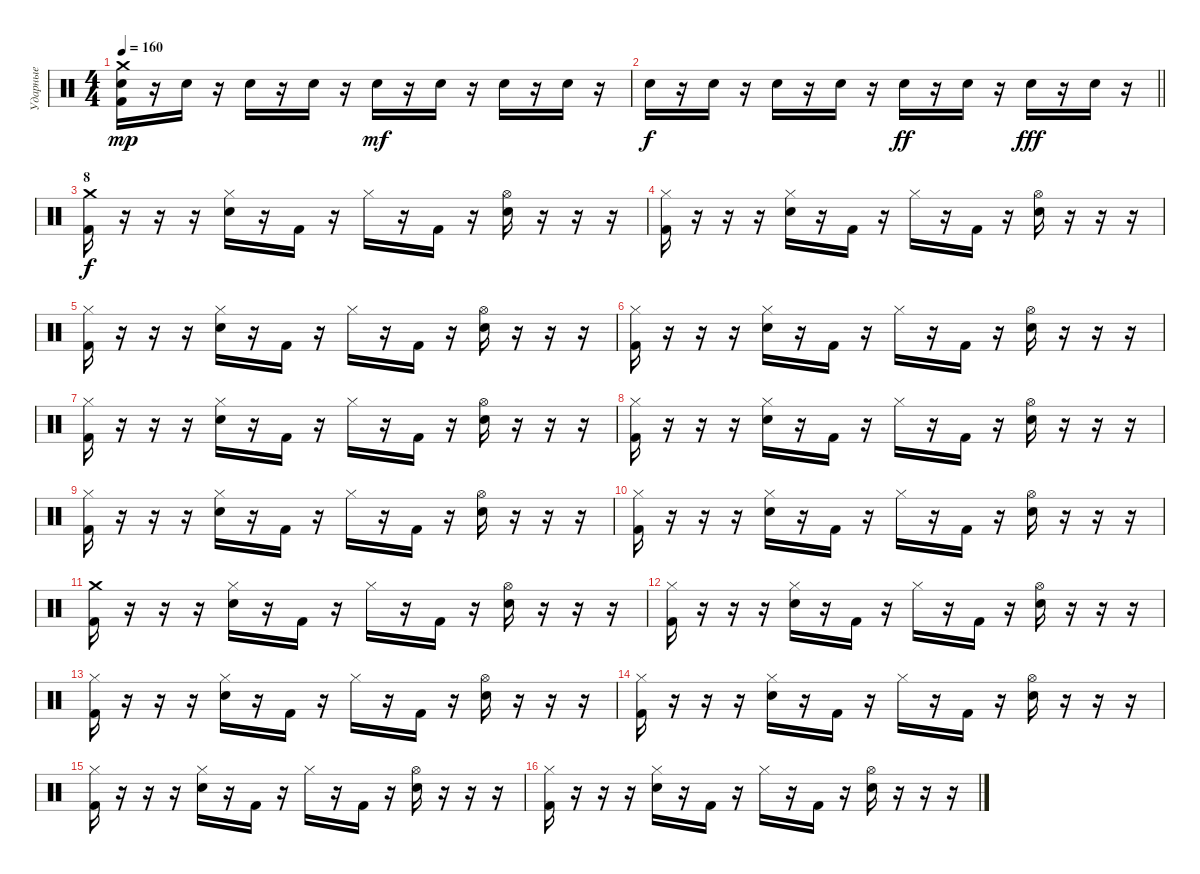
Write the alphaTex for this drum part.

\track ("Ударные" "Ударные") {instrument percussion}
\staff {score}
\articulation defaults
\ts (4 4)
\tempo 160
\clef neutral
\ks c
("Crash medium (hit)" "Electric Snare (hit)" "Kick (hit) 2").16{dy mp} r.16 "Electric Snare (hit)".16 r.16 "Electric Snare (hit)".16 r.16 "Electric Snare (hit)".16 r.16 "Electric Snare (hit)".16{dy mf} r.16 "Electric Snare (hit)".16 r.16 "Electric Snare (hit)".16 r.16 "Electric Snare (hit)".16 r.16 |
\barLineRight lightlight "Electric Snare (hit)".16{dy f}
r.16 "Electric Snare (hit)".16 r.16 "Electric Snare (hit)".16 r.16 "Electric Snare (hit)".16 r.16 "Electric Snare (hit)".16{dy ff} r.16 "Electric Snare (hit)".16 r.16 "Electric Snare (hit)".16{dy fff} r.16 "Electric Snare (hit)".16 r.16 |
\section ("" "8")
("Crash medium (hit)" "Kick (hit) 2").16{dy f} r.16 r.16 r.16 ("Hi-Hat (closed)" "Electric Snare (hit)").16 r.16 "Kick (hit) 2".16 r.16 "Hi-Hat (closed)".16 r.16 "Kick (hit) 2".16 r.16 ("Hi-Hat (open)" "Electric Snare (hit)").16 r.16 r.16 r.16 |
("Hi-Hat (closed)" "Kick (hit) 2").16 r.16 r.16 r.16 ("Hi-Hat (closed)" "Electric Snare (hit)").16 r.16 "Kick (hit) 2".16 r.16 "Hi-Hat (closed)".16 r.16 "Kick (hit) 2".16 r.16 ("Hi-Hat (open)" "Electric Snare (hit)").16 r.16 r.16 r.16 |
("Hi-Hat (closed)" "Kick (hit) 2").16 r.16 r.16 r.16 ("Hi-Hat (closed)" "Electric Snare (hit)").16 r.16 "Kick (hit) 2".16 r.16 "Hi-Hat (closed)".16 r.16 "Kick (hit) 2".16 r.16 ("Hi-Hat (open)" "Electric Snare (hit)").16 r.16 r.16 r.16 |
("Hi-Hat (closed)" "Kick (hit) 2").16 r.16 r.16 r.16 ("Hi-Hat (closed)" "Electric Snare (hit)").16 r.16 "Kick (hit) 2".16 r.16 "Hi-Hat (closed)".16 r.16 "Kick (hit) 2".16 r.16 ("Hi-Hat (open)" "Electric Snare (hit)").16 r.16 r.16 r.16 |
("Hi-Hat (closed)" "Kick (hit) 2").16 r.16 r.16 r.16 ("Hi-Hat (closed)" "Electric Snare (hit)").16 r.16 "Kick (hit) 2".16 r.16 "Hi-Hat (closed)".16 r.16 "Kick (hit) 2".16 r.16 ("Hi-Hat (open)" "Electric Snare (hit)").16 r.16 r.16 r.16 |
("Hi-Hat (closed)" "Kick (hit) 2").16 r.16 r.16 r.16 ("Hi-Hat (closed)" "Electric Snare (hit)").16 r.16 "Kick (hit) 2".16 r.16 "Hi-Hat (closed)".16 r.16 "Kick (hit) 2".16 r.16 ("Hi-Hat (open)" "Electric Snare (hit)").16 r.16 r.16 r.16 |
("Hi-Hat (closed)" "Kick (hit) 2").16 r.16 r.16 r.16 ("Hi-Hat (closed)" "Electric Snare (hit)").16 r.16 "Kick (hit) 2".16 r.16 "Hi-Hat (closed)".16 r.16 "Kick (hit) 2".16 r.16 ("Hi-Hat (open)" "Electric Snare (hit)").16 r.16 r.16 r.16 |
("Hi-Hat (closed)" "Kick (hit) 2").16 r.16 r.16 r.16 ("Hi-Hat (closed)" "Electric Snare (hit)").16 r.16 "Kick (hit) 2".16 r.16 "Hi-Hat (closed)".16 r.16 "Kick (hit) 2".16 r.16 ("Hi-Hat (open)" "Electric Snare (hit)").16 r.16 r.16 r.16 |
("Crash medium (hit)" "Kick (hit) 2").16 r.16 r.16 r.16 ("Hi-Hat (closed)" "Electric Snare (hit)").16 r.16 "Kick (hit) 2".16 r.16 "Hi-Hat (closed)".16 r.16 "Kick (hit) 2".16 r.16 ("Hi-Hat (open)" "Electric Snare (hit)").16 r.16 r.16 r.16 |
("Hi-Hat (closed)" "Kick (hit) 2").16 r.16 r.16 r.16 ("Hi-Hat (closed)" "Electric Snare (hit)").16 r.16 "Kick (hit) 2".16 r.16 "Hi-Hat (closed)".16 r.16 "Kick (hit) 2".16 r.16 ("Hi-Hat (open)" "Electric Snare (hit)").16 r.16 r.16 r.16 |
("Hi-Hat (closed)" "Kick (hit) 2").16 r.16 r.16 r.16 ("Hi-Hat (closed)" "Electric Snare (hit)").16 r.16 "Kick (hit) 2".16 r.16 "Hi-Hat (closed)".16 r.16 "Kick (hit) 2".16 r.16 ("Hi-Hat (open)" "Electric Snare (hit)").16 r.16 r.16 r.16 |
("Hi-Hat (closed)" "Kick (hit) 2").16 r.16 r.16 r.16 ("Hi-Hat (closed)" "Electric Snare (hit)").16 r.16 "Kick (hit) 2".16 r.16 "Hi-Hat (closed)".16 r.16 "Kick (hit) 2".16 r.16 ("Hi-Hat (open)" "Electric Snare (hit)").16 r.16 r.16 r.16 |
("Hi-Hat (closed)" "Kick (hit) 2").16 r.16 r.16 r.16 ("Hi-Hat (closed)" "Electric Snare (hit)").16 r.16 "Kick (hit) 2".16 r.16 "Hi-Hat (closed)".16 r.16 "Kick (hit) 2".16 r.16 ("Hi-Hat (open)" "Electric Snare (hit)").16 r.16 r.16 r.16 |
("Hi-Hat (closed)" "Kick (hit) 2").16 r.16 r.16 r.16 ("Hi-Hat (closed)" "Electric Snare (hit)").16 r.16 "Kick (hit) 2".16 r.16 "Hi-Hat (closed)".16 r.16 "Kick (hit) 2".16 r.16 ("Hi-Hat (open)" "Electric Snare (hit)").16 r.16 r.16 r.16
